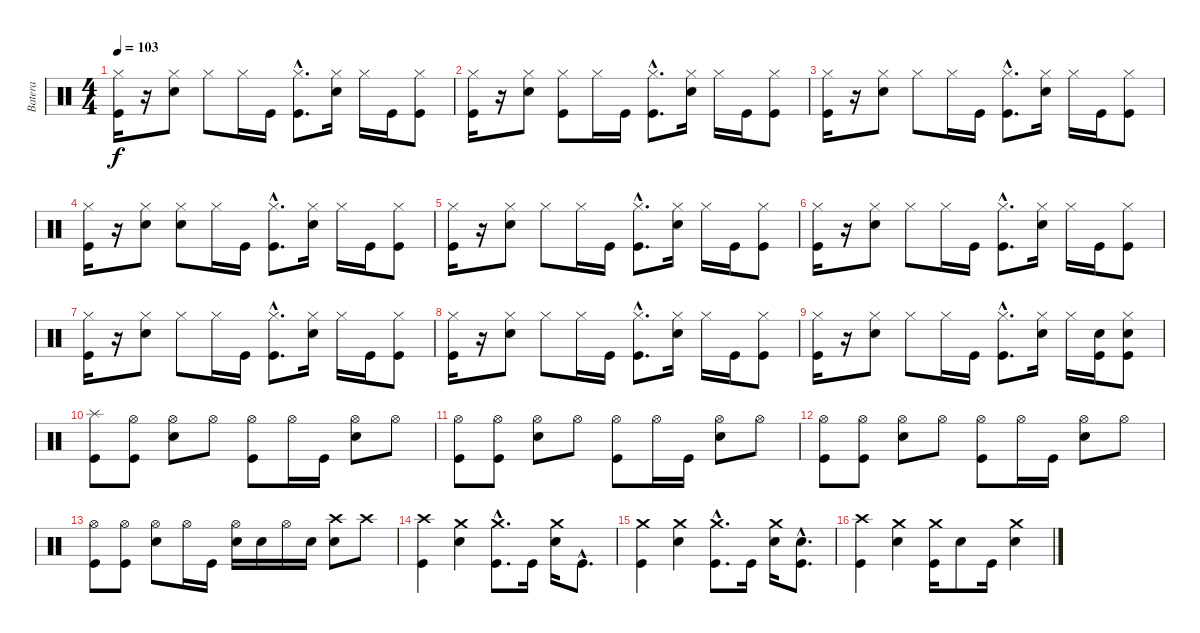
\track ("Batera" "Batera") {instrument percussion}
\staff {score}
\articulation defaults
\ts (4 4)
\tempo 103
\clef neutral
\ks c
("Hi-Hat (closed)" "Kick (hit)").16{dy f} r.16 ("Hi-Hat (closed)" "Snare (hit) 2").8 "Hi-Hat (closed)".8 "Hi-Hat (closed)".16 "Kick (hit)".16 ("Hi-Hat (closed)"{hac} "Kick (hit)"{hac}).8{d} ("Hi-Hat (closed)" "Snare (hit) 2").16 "Hi-Hat (closed)".16 "Kick (hit)".16 ("Hi-Hat (closed)" "Kick (hit)").8 |
("Hi-Hat (closed)" "Kick (hit)").16 r.16 ("Hi-Hat (closed)" "Snare (hit) 2").8 ("Hi-Hat (closed)" "Kick (hit)").8 "Hi-Hat (closed)".16 "Kick (hit)".16 ("Hi-Hat (closed)"{hac} "Kick (hit)"{hac}).8{d} ("Hi-Hat (closed)" "Snare (hit) 2").16 "Hi-Hat (closed)".16 "Kick (hit)".16 ("Hi-Hat (closed)" "Kick (hit)").8 |
("Hi-Hat (closed)" "Kick (hit)").16 r.16 ("Hi-Hat (closed)" "Snare (hit) 2").8 "Hi-Hat (closed)".8 "Hi-Hat (closed)".16 "Kick (hit)".16 ("Hi-Hat (closed)"{hac} "Kick (hit)"{hac}).8{d} ("Hi-Hat (closed)" "Snare (hit) 2").16 "Hi-Hat (closed)".16 "Kick (hit)".16 ("Hi-Hat (closed)" "Kick (hit)").8 |
("Hi-Hat (closed)" "Kick (hit)").16 r.16 ("Hi-Hat (closed)" "Snare (hit) 2").8 ("Hi-Hat (closed)" "Snare (hit) 2").8 "Hi-Hat (closed)".16 "Kick (hit)".16 ("Hi-Hat (closed)"{hac} "Kick (hit)"{hac}).8{d} ("Hi-Hat (closed)" "Snare (hit) 2").16 "Hi-Hat (closed)".16 "Kick (hit)".16 ("Hi-Hat (closed)" "Kick (hit)").8 |
("Hi-Hat (closed)" "Kick (hit)").16 r.16 ("Hi-Hat (closed)" "Snare (hit) 2").8 "Hi-Hat (closed)".8 "Hi-Hat (closed)".16 "Kick (hit)".16 ("Hi-Hat (closed)"{hac} "Kick (hit)"{hac}).8{d} ("Hi-Hat (closed)" "Snare (hit) 2").16 "Hi-Hat (closed)".16 "Kick (hit)".16 ("Hi-Hat (closed)" "Kick (hit)").8 |
("Hi-Hat (closed)" "Kick (hit)").16 r.16 ("Hi-Hat (closed)" "Snare (hit) 2").8 "Hi-Hat (closed)".8 "Hi-Hat (closed)".16 "Kick (hit)".16 ("Hi-Hat (closed)"{hac} "Kick (hit)"{hac}).8{d} ("Hi-Hat (closed)" "Snare (hit) 2").16 "Hi-Hat (closed)".16 "Kick (hit)".16 ("Hi-Hat (closed)" "Kick (hit)").8 |
("Hi-Hat (closed)" "Kick (hit)").16 r.16 ("Hi-Hat (closed)" "Snare (hit) 2").8 "Hi-Hat (closed)".8 "Hi-Hat (closed)".16 "Kick (hit)".16 ("Hi-Hat (closed)"{hac} "Kick (hit)"{hac}).8{d} ("Hi-Hat (closed)" "Snare (hit) 2").16 "Hi-Hat (closed)".16 "Kick (hit)".16 ("Hi-Hat (closed)" "Kick (hit)").8 |
("Hi-Hat (closed)" "Kick (hit)").16 r.16 ("Hi-Hat (closed)" "Snare (hit) 2").8 "Hi-Hat (closed)".8 "Hi-Hat (closed)".16 "Kick (hit)".16 ("Hi-Hat (closed)"{hac} "Kick (hit)"{hac}).8{d} ("Hi-Hat (closed)" "Snare (hit) 2").16 "Hi-Hat (closed)".16 "Kick (hit)".16 ("Hi-Hat (closed)" "Kick (hit)").8 |
("Hi-Hat (closed)" "Kick (hit)").16 r.16 ("Hi-Hat (closed)" "Snare (hit) 2").8 "Hi-Hat (closed)".8 "Hi-Hat (closed)".16 "Kick (hit)".16 ("Hi-Hat (closed)"{hac} "Kick (hit)"{hac}).8{d} ("Hi-Hat (closed)" "Snare (hit) 2").16 "Hi-Hat (closed)".16 ("Snare (hit) 2" "Kick (hit)").16 ("Hi-Hat (closed)" "Snare (hit) 2" "Kick (hit)").8 |
("Splash (hit)" "Kick (hit)").8 ("Hi-Hat (open)" "Kick (hit)").8 ("Hi-Hat (open)" "Snare (hit) 2").8 "Hi-Hat (open)".8 ("Hi-Hat (open)" "Kick (hit)").8 "Hi-Hat (open)".16 "Kick (hit)".16 ("Hi-Hat (open)" "Snare (hit) 2").8 "Hi-Hat (open)".8 |
("Hi-Hat (open)" "Kick (hit)").8 ("Hi-Hat (open)" "Kick (hit)").8 ("Hi-Hat (open)" "Snare (hit) 2").8 "Hi-Hat (open)".8 ("Hi-Hat (open)" "Kick (hit)").8 "Hi-Hat (open)".16 "Kick (hit)".16 ("Hi-Hat (open)" "Snare (hit) 2").8 "Hi-Hat (open)".8 |
("Hi-Hat (open)" "Kick (hit)").8 ("Hi-Hat (open)" "Kick (hit)").8 ("Hi-Hat (open)" "Snare (hit) 2").8 "Hi-Hat (open)".8 ("Hi-Hat (open)" "Kick (hit)").8 "Hi-Hat (open)".16 "Kick (hit)".16 ("Hi-Hat (open)" "Snare (hit) 2").8 "Hi-Hat (open)".8 |
("Hi-Hat (open)" "Kick (hit)").8 ("Hi-Hat (open)" "Kick (hit)").8 ("Hi-Hat (open)" "Snare (hit) 2").8 "Hi-Hat (open)".16 "Kick (hit)".16 ("Hi-Hat (open)" "Snare (hit) 2").16 "Snare (hit) 2".16 "Hi-Hat (open)".16 "Snare (hit) 2".16 ("Crash high (hit)" "Snare (hit) 2").8 "Crash high (hit)".8 |
("Crash high (hit)" "Kick (hit)").4 ("Crash medium (hit)" "Snare (hit) 2").4 ("Crash medium (hit)"{hac} "Kick (hit)"{hac}).8{d} "Kick (hit)".16 ("Crash medium (hit)" "Snare (hit) 2").16 "Kick (hit)"{hac}.8{d} |
("Crash medium (hit)" "Kick (hit)").4 ("Crash medium (hit)" "Snare (hit) 2").4 ("Crash medium (hit)"{hac} "Kick (hit)"{hac}).8{d} "Kick (hit)".16 ("Crash medium (hit)" "Snare (hit) 2").16 ("Snare (hit) 2"{hac} "Kick (hit)"{hac}).8{d} |
("Crash high (hit)" "Kick (hit)").4 ("Crash medium (hit)" "Snare (hit) 2").4 ("Crash medium (hit)" "Kick (hit)").16 "Snare (hit) 2".8 "Kick (hit)".16 ("Crash medium (hit)" "Snare (hit) 2").4
